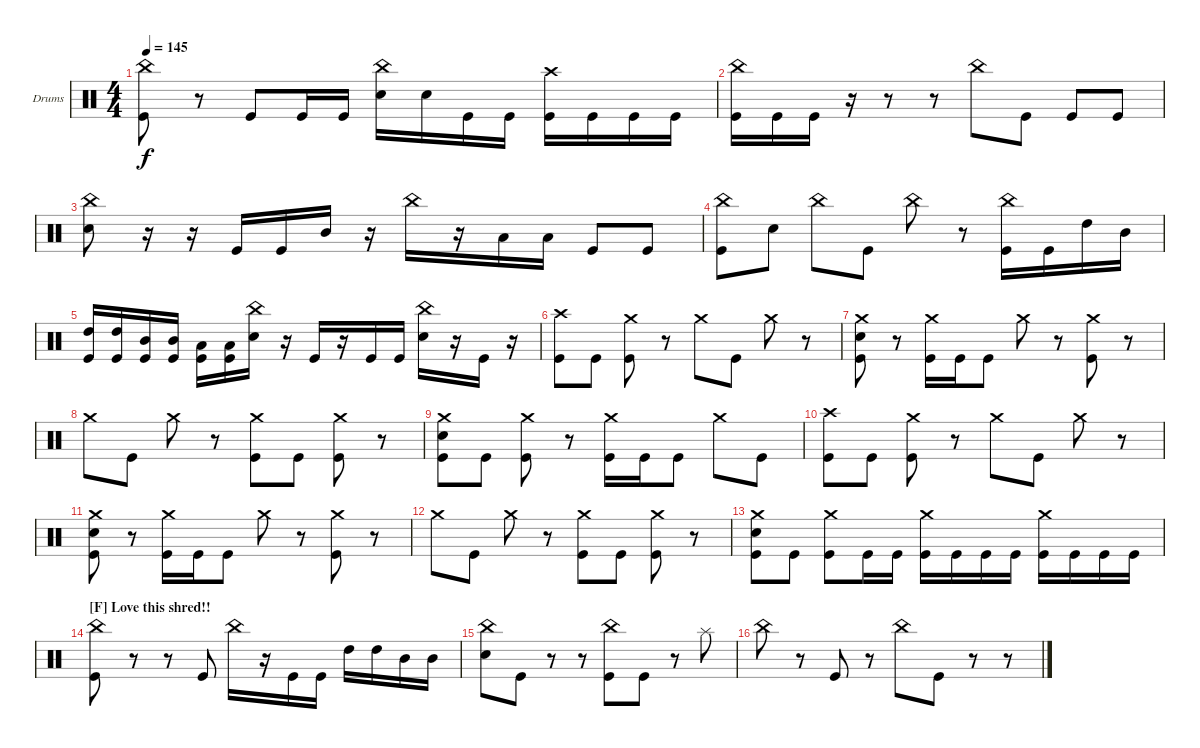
\defaultSystemsLayout 4
\bracketExtendMode groupsimilarinstruments
\firstSystemTrackNameOrientation horizontal
\otherSystemsTrackNameOrientation horizontal
\track ("Drumkit" "Drums") {instrument percussion}
\staff {score}
\articulation defaults
\ts (4 4)
\tempo 145
\clef neutral
\ks c
("Kick (hit)" "China (hit)").8{dy f} r.8 "Kick (hit)".8 "Kick (hit)".16 "Kick (hit)".16 ("Snare (hit) 2" "China (hit)").16 "Snare (hit) 2".16 "Kick (hit)".16 "Kick (hit)".16 ("Kick (hit)" "Crash high (hit)").16 "Kick (hit)".16 "Kick (hit)".16 "Kick (hit)".16 |
("Kick (hit)" "China (hit)").16 "Kick (hit)".16 "Kick (hit)".16 r.16 r.8 r.8 "China (hit)".8 "Kick (hit)".8 "Kick (hit)".8 "Kick (hit)".8 |
("China (hit)" "Snare (hit) 2").8 r.16 r.16 "Kick (hit)".16 "Kick (hit)".16 "Mid Tom (hit)".16 r.16 "China (hit)".16 r.16 "Low Tom (hit)".16 "Low Tom (hit)".16 "Kick (hit)".8 "Kick (hit)".8 |
("China (hit)" "Kick (hit)").8 "Snare (hit) 2".8 "China (hit)".8 "Kick (hit)".8 "China (hit)".8 r.8 ("China (hit)" "Kick (hit)").16 "Kick (hit)".16 "High Tom (hit)".16 "Mid Tom (hit)".16 |
("High Tom (hit)" "Kick (hit)").16 ("High Tom (hit)" "Kick (hit)").16 ("Mid Tom (hit)" "Kick (hit)").16 ("Mid Tom (hit)" "Kick (hit)").16 ("Kick (hit)" "Low Tom (hit)").16 ("Kick (hit)" "Low Tom (hit)").16 ("Snare (hit) 2" "China (hit)").16 r.16 "Kick (hit)".16 r.16 "Kick (hit)".16 "Kick (hit)".16 ("Snare (hit) 2" "China (hit)").16 r.16 "Kick (hit)".16 r.16 |
("Kick (hit)" "Crash high (hit)").8 "Kick (hit)".8 ("Kick (hit)" "Crash medium (hit)").8 r.8 "Crash medium (hit)".8 "Kick (hit)".8 "Crash medium (hit)".8 r.8 |
("Snare (hit) 2" "Crash medium (hit)" "Kick (hit)").8 r.8 ("Kick (hit)" "Crash medium (hit)").16 "Kick (hit)".16 "Kick (hit)".8 "Crash medium (hit)".8 r.8 ("Crash medium (hit)" "Kick (hit)").8 r.8 |
"Crash medium (hit)".8 "Kick (hit)".8 "Crash medium (hit)".8 r.8 ("Crash medium (hit)" "Kick (hit)").8 "Kick (hit)".8 ("Crash medium (hit)" "Kick (hit)").8 r.8 |
("Snare (hit) 2" "Crash medium (hit)" "Kick (hit)").8 "Kick (hit)".8 ("Crash medium (hit)" "Kick (hit)").8 r.8 ("Crash medium (hit)" "Kick (hit)").16 "Kick (hit)".16 "Kick (hit)".8 "Crash medium (hit)".8 "Kick (hit)".8 |
("Kick (hit)" "Crash high (hit)").8 "Kick (hit)".8 ("Kick (hit)" "Crash medium (hit)").8 r.8 "Crash medium (hit)".8 "Kick (hit)".8 "Crash medium (hit)".8 r.8 |
("Snare (hit) 2" "Crash medium (hit)" "Kick (hit)").8 r.8 ("Kick (hit)" "Crash medium (hit)").16 "Kick (hit)".16 "Kick (hit)".8 "Crash medium (hit)".8 r.8 ("Crash medium (hit)" "Kick (hit)").8 r.8 |
"Crash medium (hit)".8 "Kick (hit)".8 "Crash medium (hit)".8 r.8 ("Crash medium (hit)" "Kick (hit)").8 "Kick (hit)".8 ("Crash medium (hit)" "Kick (hit)").8 r.8 |
("Snare (hit) 2" "Crash medium (hit)" "Kick (hit)").8 "Kick (hit)".8 ("Crash medium (hit)" "Kick (hit)").8 "Kick (hit)".16 "Kick (hit)".16 ("Crash medium (hit)" "Kick (hit)").16 "Kick (hit)".16 "Kick (hit)".16 "Kick (hit)".16 ("Crash medium (hit)" "Kick (hit)").16 "Kick (hit)".16 "Kick (hit)".16 "Kick (hit)".16 |
\section ("F" "Love this shred!!")
("China (hit)" "Kick (hit)").8 r.8 r.8 "Kick (hit)".8 "China (hit)".16 r.16 "Kick (hit)".16 "Kick (hit)".16 "High Tom (hit)".16 "High Tom (hit)".16 "Mid Tom (hit)".16 "Mid Tom (hit)".16 |
("China (hit)" "Snare (hit) 2").8 "Kick (hit)".8 r.8 r.8 ("China (hit)" "Kick (hit)").8 "Kick (hit)".8 r.8 "Splash (hit)".8 |
"China (hit)".8 r.8 "Kick (hit)".8 r.8 "China (hit)".8 "Kick (hit)".8 r.8 r.8
